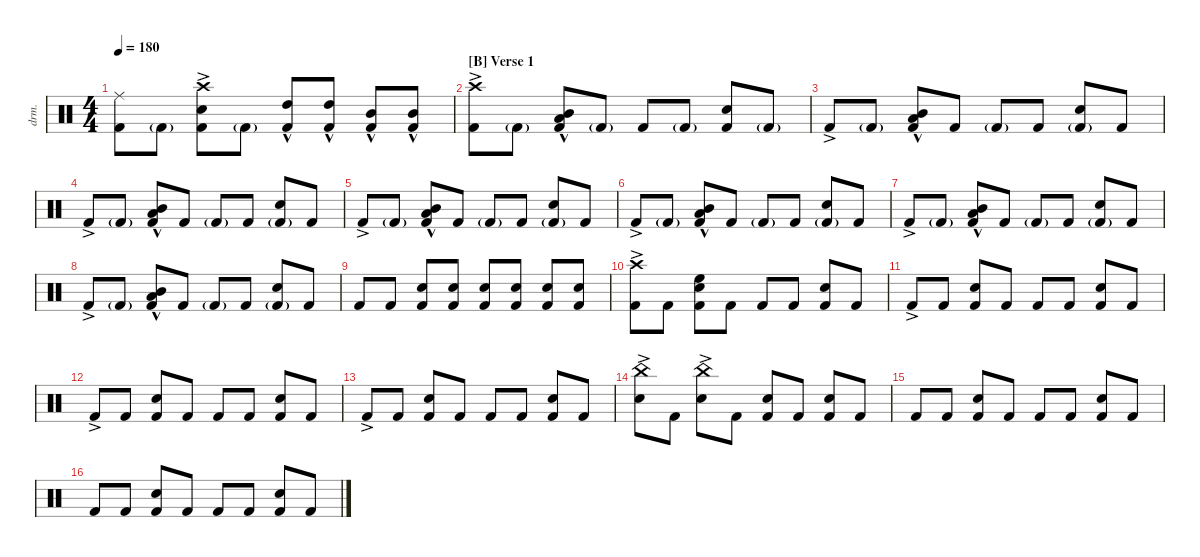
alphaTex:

\defaultSystemsLayout 4
\hideDynamics
\bracketExtendMode nobrackets
\otherSystemsTrackNameOrientation horizontal
\track ("Drum" "drm.") {instrument percussion}
\staff {score}
\articulation defaults
\ts (4 4)
\tempo 180
\clef neutral
\ks c
("Kick (hit) 2" "Ride (middle)").8{dy f beam Down} "Kick (hit) 2"{g}.8{beam Down} ("Snare (hit) 2"{ac} "Kick (hit) 2"{ac} "Crash high (hit)"{ac}).8{beam Down} "Kick (hit) 2"{g}.8{beam Down} ("Kick (hit) 2"{hac} "High Tom (hit)"{hac}).8{beam Up} ("Kick (hit) 2"{hac} "High Tom (hit)"{hac}).8{beam Up} ("Kick (hit) 2"{hac} "Mid Tom (hit)"{hac}).8{beam Up} ("Kick (hit) 2"{hac} "Mid Tom (hit)"{hac}).8{beam Up} |
\section ("B" "Verse 1")
("Kick (hit) 2"{ac} "Crash high (hit)"{ac}).8{beam Down} "Kick (hit) 2"{g}.8{beam Down} ("Kick (hit) 2"{hac} "Low Tom (hit)"{hac} "Mid Tom (hit)"{hac}).8{beam Up} "Kick (hit) 2"{g}.8{beam Up} "Kick (hit) 2".8{beam Up} "Kick (hit) 2"{g}.8{beam Up} ("Kick (hit) 2" "Snare (hit) 2").8{beam Up} "Kick (hit) 2"{g}.8{beam Up} |
"Kick (hit) 2"{ac}.8{beam Up} "Kick (hit) 2"{g}.8{beam Up} ("Kick (hit) 2"{hac} "Low Tom (hit)"{hac} "Mid Tom (hit)"{hac}).8{beam Up} "Kick (hit) 2".8{beam Up} "Kick (hit) 2"{g}.8{beam Up} "Kick (hit) 2".8{beam Up} ("Kick (hit) 2"{g} "Snare (hit) 2").8{beam Up} "Kick (hit) 2".8{beam Up} |
"Kick (hit) 2"{ac}.8{beam Up} "Kick (hit) 2"{g}.8{beam Up} ("Kick (hit) 2"{hac} "Low Tom (hit)"{hac} "Mid Tom (hit)"{hac}).8{beam Up} "Kick (hit) 2".8{beam Up} "Kick (hit) 2"{g}.8{beam Up} "Kick (hit) 2".8{beam Up} ("Kick (hit) 2"{g} "Snare (hit) 2").8{beam Up} "Kick (hit) 2".8{beam Up} |
"Kick (hit) 2"{ac}.8{beam Up} "Kick (hit) 2"{g}.8{beam Up} ("Kick (hit) 2"{hac} "Low Tom (hit)"{hac} "Mid Tom (hit)"{hac}).8{beam Up} "Kick (hit) 2".8{beam Up} "Kick (hit) 2"{g}.8{beam Up} "Kick (hit) 2".8{beam Up} ("Kick (hit) 2"{g} "Snare (hit) 2").8{beam Up} "Kick (hit) 2".8{beam Up} |
"Kick (hit) 2"{ac}.8{beam Up} "Kick (hit) 2"{g}.8{beam Up} ("Kick (hit) 2"{hac} "Low Tom (hit)"{hac} "Mid Tom (hit)"{hac}).8{beam Up} "Kick (hit) 2".8{beam Up} "Kick (hit) 2"{g}.8{beam Up} "Kick (hit) 2".8{beam Up} ("Kick (hit) 2"{g} "Snare (hit) 2").8{beam Up} "Kick (hit) 2".8{beam Up} |
"Kick (hit) 2"{ac}.8{beam Up} "Kick (hit) 2"{g}.8{beam Up} ("Kick (hit) 2"{hac} "Low Tom (hit)"{hac} "Mid Tom (hit)"{hac}).8{beam Up} "Kick (hit) 2".8{beam Up} "Kick (hit) 2"{g}.8{beam Up} "Kick (hit) 2".8{beam Up} ("Kick (hit) 2"{g} "Snare (hit) 2").8{beam Up} "Kick (hit) 2".8{beam Up} |
"Kick (hit) 2"{ac}.8{beam Up} "Kick (hit) 2"{g}.8{beam Up} ("Kick (hit) 2"{hac} "Low Tom (hit)"{hac} "Mid Tom (hit)"{hac}).8{beam Up} "Kick (hit) 2".8{beam Up} "Kick (hit) 2"{g}.8{beam Up} "Kick (hit) 2".8{beam Up} ("Kick (hit) 2"{g} "Snare (hit) 2").8{beam Up} "Kick (hit) 2".8{beam Up} |
"Kick (hit) 2".8{beam Up} "Kick (hit) 2".8{beam Up} ("Kick (hit) 2" "Snare (hit) 2").8{beam Up} ("Snare (hit) 2" "Kick (hit) 2").8{beam Up} ("Kick (hit) 2" "Snare (hit) 2").8{beam Up} ("Kick (hit) 2" "Snare (hit) 2").8{beam Up} ("Kick (hit) 2" "Snare (hit) 2").8{beam Up} ("Kick (hit) 2" "Snare (hit) 2").8{beam Up} |
("Kick (hit) 2"{ac} "Crash high (hit)"{ac}).8{beam Down} "Kick (hit) 2".8{beam Down} ("Kick (hit) 2" "High Floor Tom (hit)" "Snare (hit) 2").8{beam Down} "Kick (hit) 2".8{beam Down} "Kick (hit) 2".8{beam Up} "Kick (hit) 2".8{beam Up} ("Kick (hit) 2" "Snare (hit) 2").8{beam Up} "Kick (hit) 2".8{beam Up} |
"Kick (hit) 2"{ac}.8{beam Up} "Kick (hit) 2".8{beam Up} ("Kick (hit) 2" "Snare (hit) 2").8{beam Up} "Kick (hit) 2".8{beam Up} "Kick (hit) 2".8{beam Up} "Kick (hit) 2".8{beam Up} ("Kick (hit) 2" "Snare (hit) 2").8{beam Up} "Kick (hit) 2".8{beam Up} |
"Kick (hit) 2"{ac}.8{beam Up} "Kick (hit) 2".8{beam Up} ("Kick (hit) 2" "Snare (hit) 2").8{beam Up} "Kick (hit) 2".8{beam Up} "Kick (hit) 2".8{beam Up} "Kick (hit) 2".8{beam Up} ("Kick (hit) 2" "Snare (hit) 2").8{beam Up} "Kick (hit) 2".8{beam Up} |
"Kick (hit) 2"{ac}.8{beam Up} "Kick (hit) 2".8{beam Up} ("Kick (hit) 2" "Snare (hit) 2").8{beam Up} "Kick (hit) 2".8{beam Up} "Kick (hit) 2".8{beam Up} "Kick (hit) 2".8{beam Up} ("Kick (hit) 2" "Snare (hit) 2").8{beam Up} "Kick (hit) 2".8{beam Up} |
("China (hit)"{ac} "Snare (hit) 2"{ac}).8{beam Down} "Kick (hit) 2".8{beam Down} ("Snare (hit) 2"{ac} "China (hit)"{ac}).8{beam Down} "Kick (hit) 2".8{beam Down} ("Kick (hit) 2" "Snare (hit) 2").8{beam Up} "Kick (hit) 2".8{beam Up} ("Kick (hit) 2" "Snare (hit) 2").8{beam Up} "Kick (hit) 2".8{beam Up} |
"Kick (hit) 2".8{beam Up} "Kick (hit) 2".8{beam Up} ("Kick (hit) 2" "Snare (hit) 2").8{beam Up} "Kick (hit) 2".8{beam Up} "Kick (hit) 2".8{beam Up} "Kick (hit) 2".8{beam Up} ("Kick (hit) 2" "Snare (hit) 2").8{beam Up} "Kick (hit) 2".8{beam Up} |
"Kick (hit) 2".8{beam Up} "Kick (hit) 2".8{beam Up} ("Kick (hit) 2" "Snare (hit) 2").8{beam Up} "Kick (hit) 2".8{beam Up} "Kick (hit) 2".8{beam Up} "Kick (hit) 2".8{beam Up} ("Kick (hit) 2" "Snare (hit) 2").8{beam Up} "Kick (hit) 2".8{beam Up}
